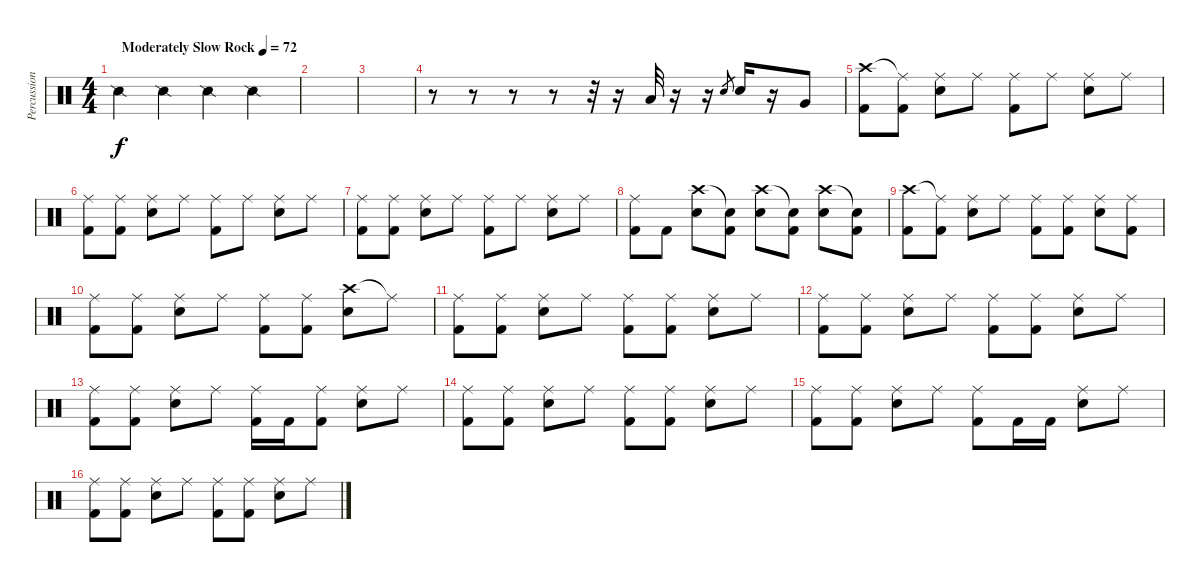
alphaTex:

\track ("Percussion" "Percussion") {instrument percussion}
\staff {score}
\articulation defaults
\ts (4 4)
\tempo (72 "Moderately Slow Rock")
\clef neutral
\ks c "Snare (side stick) 2".4{dy f} "Snare (side stick) 2".4 "Snare (side stick) 2".4 "Snare (side stick) 2".4
|
|
|
r.8 r.8 r.8 r.8 r.32 r.16 "Low Tom (hit)".32 r.16 r.16 "Electric Snare (hit)".8{gr} "Electric Snare (hit)".16 r.16 "Very Low Tom (hit)".8 |
("Crash high (hit)" "Kick (hit) 2").8 ("Ride (middle)"{t} "Kick (hit) 2").8 ("Ride (middle)" "Electric Snare (hit)").8 "Ride (middle)".8 ("Ride (middle)" "Kick (hit) 2").8 "Ride (middle)".8 ("Ride (middle)" "Electric Snare (hit)").8 "Ride (middle)".8 |
("Ride (middle)" "Kick (hit) 2").8 ("Ride (middle)" "Kick (hit) 2").8 ("Ride (middle)" "Electric Snare (hit)").8 "Ride (middle)".8 ("Ride (middle)" "Kick (hit) 2").8 "Ride (middle)".8 ("Ride (middle)" "Electric Snare (hit)").8 "Ride (middle)".8 |
("Ride (middle)" "Kick (hit) 2").8 ("Ride (middle)" "Kick (hit) 2").8 ("Ride (middle)" "Electric Snare (hit)").8 "Ride (middle)".8 ("Ride (middle)" "Kick (hit) 2").8 "Ride (middle)".8 ("Ride (middle)" "Electric Snare (hit)").8 "Ride (middle)".8 |
("Ride (middle)" "Kick (hit) 2").8 "Kick (hit) 2".8 ("Crash high (hit)" "Electric Snare (hit)").8 ("Snare (hit)"{t} "Kick (hit) 2").8 ("Crash high (hit)" "Electric Snare (hit)").8 ("Snare (hit)"{t} "Kick (hit) 2").8 ("Crash high (hit)" "Electric Snare (hit)").8 ("Snare (hit)"{t} "Kick (hit) 2").8 |
("Crash high (hit)" "Kick (hit) 2").8 ("Ride (middle)"{t} "Kick (hit) 2").8 ("Ride (middle)" "Electric Snare (hit)").8 "Ride (middle)".8 ("Ride (middle)" "Kick (hit) 2").8 ("Ride (middle)" "Kick (hit) 2").8 ("Ride (middle)" "Electric Snare (hit)").8 ("Ride (middle)" "Kick (hit) 2").8 |
("Ride (middle)" "Kick (hit) 2").8 ("Ride (middle)" "Kick (hit) 2").8 ("Ride (middle)" "Electric Snare (hit)").8 "Ride (middle)".8 ("Ride (middle)" "Kick (hit) 2").8 ("Ride (middle)" "Kick (hit) 2").8 ("Crash high (hit)" "Electric Snare (hit)").8 "Ride (middle)"{t}.8 |
("Ride (middle)" "Kick (hit) 2").8 ("Ride (middle)" "Kick (hit) 2").8 ("Ride (middle)" "Electric Snare (hit)").8 "Ride (middle)".8 ("Ride (middle)" "Kick (hit) 2").8 ("Ride (middle)" "Kick (hit) 2").8 ("Ride (middle)" "Electric Snare (hit)").8 "Ride (middle)".8 |
("Ride (middle)" "Kick (hit) 2").8 ("Ride (middle)" "Kick (hit) 2").8 ("Ride (middle)" "Electric Snare (hit)").8 "Ride (middle)".8 ("Ride (middle)" "Kick (hit) 2").8 ("Ride (middle)" "Kick (hit) 2").8 ("Ride (middle)" "Electric Snare (hit)").8 "Ride (middle)".8 |
("Ride (middle)" "Kick (hit) 2").8 ("Ride (middle)" "Kick (hit) 2").8 ("Ride (middle)" "Electric Snare (hit)").8 "Ride (middle)".8 ("Ride (middle)" "Kick (hit) 2").16 "Kick (hit) 2".16 ("Ride (middle)" "Kick (hit) 2").8 ("Ride (middle)" "Electric Snare (hit)").8 "Ride (middle)".8 |
("Ride (middle)" "Kick (hit) 2").8 ("Ride (middle)" "Kick (hit) 2").8 ("Ride (middle)" "Electric Snare (hit)").8 "Ride (middle)".8 ("Ride (middle)" "Kick (hit) 2").8 ("Ride (middle)" "Kick (hit) 2").8 ("Ride (middle)" "Electric Snare (hit)").8 "Ride (middle)".8 |
("Ride (middle)" "Kick (hit) 2").8 ("Ride (middle)" "Kick (hit) 2").8 ("Ride (middle)" "Electric Snare (hit)").8 "Ride (middle)".8 ("Ride (middle)" "Kick (hit) 2").8 "Kick (hit) 2".16 "Kick (hit) 2".16 ("Ride (middle)" "Electric Snare (hit)").8 "Ride (middle)".8 |
("Ride (middle)" "Kick (hit) 2").8 ("Ride (middle)" "Kick (hit) 2").8 ("Ride (middle)" "Electric Snare (hit)").8 "Ride (middle)".8 ("Ride (middle)" "Kick (hit) 2").8 ("Ride (middle)" "Kick (hit) 2").8 ("Ride (middle)" "Electric Snare (hit)").8 "Ride (middle)".8
